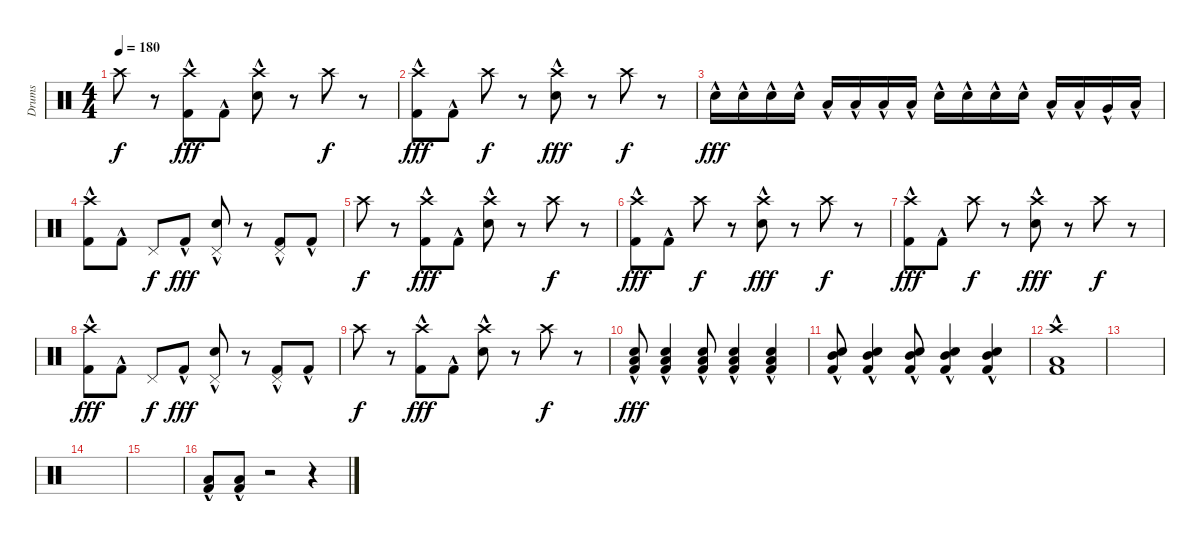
\track ("Drums" "Drums") {instrument percussion}
\staff {score}
\articulation defaults
\ts (4 4)
\tempo 180
\clef neutral
\ks c "Crash high (hit)".8{dy f}
r.8 ("Crash high (hit)" "Kick (hit) 2"{hac}).8{dy fff} "Kick (hit) 2"{hac}.8 ("Crash high (hit)" "Snare (hit) 2"{hac}).8 r.8 "Crash high (hit)".8{dy f} r.8 |
("Crash high (hit)" "Kick (hit) 2"{hac}).8{dy fff} "Kick (hit) 2"{hac}.8 "Crash high (hit)".8{dy f} r.8 ("Crash high (hit)" "Snare (hit) 2"{hac}).8{dy fff} r.8 "Crash high (hit)".8{dy f} r.8 |
"Snare (hit) 2"{hac}.16{dy fff} "Snare (hit) 2"{hac}.16 "Snare (hit) 2"{hac}.16 "Snare (hit) 2"{hac}.16 "Low Tom (hit)"{hac}.16 "Low Tom (hit)"{hac}.16 "Low Tom (hit)"{hac}.16 "Low Tom (hit)"{hac}.16 "Snare (hit) 2"{hac}.16 "Snare (hit) 2"{hac}.16 "Snare (hit) 2"{hac}.16 "Snare (hit) 2"{hac}.16 "Low Tom (hit)"{hac}.16 "Low Tom (hit)"{hac}.16 "Very Low Tom (hit)"{hac}.16 "Low Floor Tom (hit)"{hac}.16 |
("Crash high (hit)"{hac} "Kick (hit) 2"{hac}).8 "Kick (hit) 2"{hac}.8 "Pedal Hi-Hat (hit)".8{dy f} "Kick (hit) 2"{hac}.8{dy fff} ("Pedal Hi-Hat (hit)" "Snare (hit) 2"{hac}).8 r.8 ("Pedal Hi-Hat (hit)" "Kick (hit) 2"{hac}).8 "Kick (hit) 2"{hac}.8 |
"Crash high (hit)".8{dy f} r.8 ("Crash high (hit)" "Kick (hit) 2"{hac}).8{dy fff} "Kick (hit) 2"{hac}.8 ("Crash high (hit)" "Snare (hit) 2"{hac}).8 r.8 "Crash high (hit)".8{dy f} r.8 |
("Crash high (hit)" "Kick (hit) 2"{hac}).8{dy fff} "Kick (hit) 2"{hac}.8 "Crash high (hit)".8{dy f} r.8 ("Crash high (hit)" "Snare (hit) 2"{hac}).8{dy fff} r.8 "Crash high (hit)".8{dy f} r.8 |
("Crash high (hit)" "Kick (hit) 2"{hac}).8{dy fff} "Kick (hit) 2"{hac}.8 "Crash high (hit)".8{dy f} r.8 ("Crash high (hit)" "Snare (hit) 2"{hac}).8{dy fff} r.8 "Crash high (hit)".8{dy f} r.8 |
("Crash high (hit)"{hac} "Kick (hit) 2"{hac}).8{dy fff} "Kick (hit) 2"{hac}.8 "Pedal Hi-Hat (hit)".8{dy f} "Kick (hit) 2"{hac}.8{dy fff} ("Pedal Hi-Hat (hit)" "Snare (hit) 2"{hac}).8 r.8 ("Pedal Hi-Hat (hit)" "Kick (hit) 2"{hac}).8 "Kick (hit) 2"{hac}.8 |
"Crash high (hit)".8{dy f} r.8 ("Crash high (hit)" "Kick (hit) 2"{hac}).8{dy fff} "Kick (hit) 2"{hac}.8 ("Crash high (hit)" "Snare (hit) 2"{hac}).8 r.8 "Crash high (hit)".8{dy f} r.8 |
("Kick (hit) 2"{hac} "Snare (hit) 2"{hac} "Low Tom (hit)"{hac}).8{dy fff} ("Kick (hit) 2"{hac} "Snare (hit) 2"{hac} "Low Tom (hit)"{hac}).4 ("Kick (hit) 2"{hac} "Snare (hit) 2"{hac} "Low Tom (hit)"{hac}).8 ("Kick (hit) 2"{hac} "Snare (hit) 2"{hac} "Low Tom (hit)"{hac}).4 ("Kick (hit) 2"{hac} "Snare (hit) 2"{hac} "Low Tom (hit)"{hac}).4 |
("Kick (hit) 2"{hac} "Snare (hit) 2"{hac} "Mid Tom (hit)"{hac}).8 ("Kick (hit) 2"{hac} "Snare (hit) 2"{hac} "Mid Tom (hit)"{hac}).4 ("Kick (hit) 2"{hac} "Snare (hit) 2"{hac} "Mid Tom (hit)"{hac}).8 ("Kick (hit) 2"{hac} "Snare (hit) 2"{hac} "Mid Tom (hit)"{hac}).4 ("Kick (hit) 2"{hac} "Snare (hit) 2"{hac} "Mid Tom (hit)"{hac}).4 |
("Crash high (hit)"{hac} "Low Tom (hit)"{hac} "Kick (hit) 2"{hac}).1 |
|
|
|
("Low Tom (hit)"{hac} "Kick (hit) 2"{hac}).8 ("Low Tom (hit)"{hac} "Kick (hit) 2"{hac}).8 r.2 r.4
